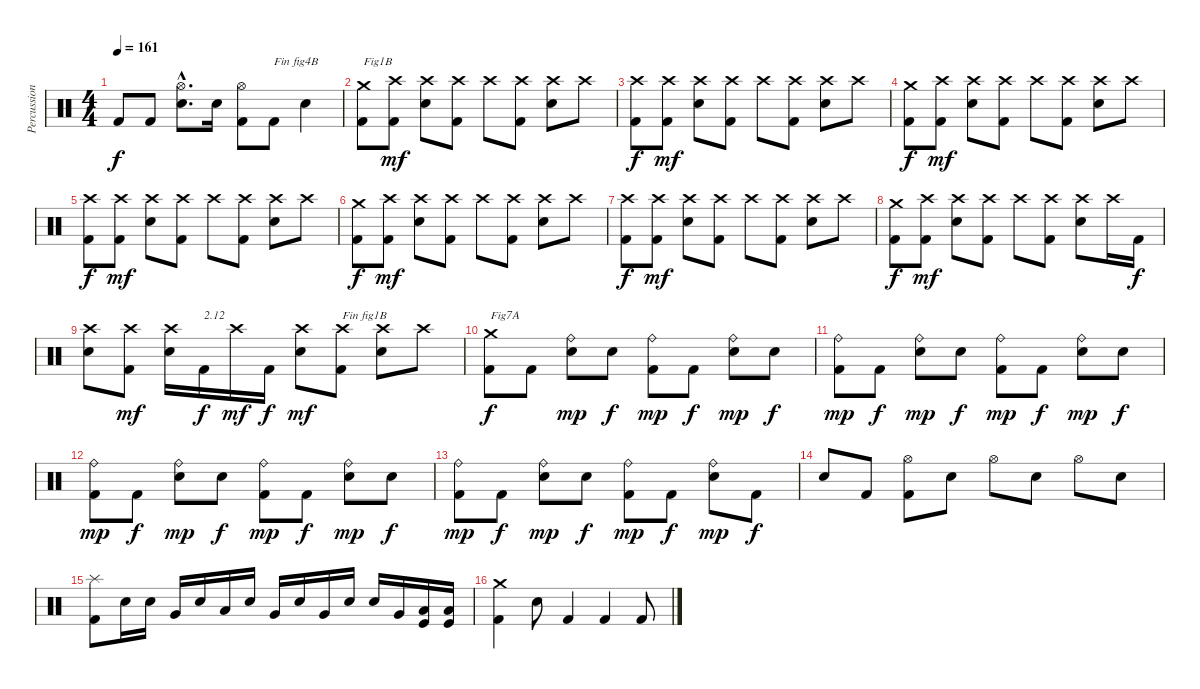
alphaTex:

\track ("Percussions" "Percussion") {instrument percussion}
\staff {score}
\articulation defaults
\ts (4 4)
\tempo 161
\clef neutral
\ks c "Kick (hit) 2".8{dy f} "Kick (hit) 2".8
("Electric Snare (hit)"{hac} "Hi-Hat (open)"{hac}).8{d} "Electric Snare (hit)".16 ("Kick (hit) 2" "Hi-Hat (open)").8 "Kick (hit) 2".8{txt "Fin fig4B"} "Electric Snare (hit)".4 |
("Kick (hit) 2" "Crash medium (hit)").8{txt "Fig1B"} ("Kick (hit) 2" "Crash high (hit)").8{dy mf} ("Electric Snare (hit)" "Crash high (hit)").8 ("Kick (hit) 2" "Crash high (hit)").8 "Crash high (hit)".8 ("Kick (hit) 2" "Crash high (hit)").8 ("Electric Snare (hit)" "Crash high (hit)").8 "Crash high (hit)".8 |
("Kick (hit) 2" "Crash high (hit)").8{dy f} ("Kick (hit) 2" "Crash high (hit)").8{dy mf} ("Electric Snare (hit)" "Crash high (hit)").8 ("Kick (hit) 2" "Crash high (hit)").8 "Crash high (hit)".8 ("Kick (hit) 2" "Crash high (hit)").8 ("Electric Snare (hit)" "Crash high (hit)").8 "Crash high (hit)".8 |
("Kick (hit) 2" "Crash medium (hit)").8{dy f} ("Kick (hit) 2" "Crash high (hit)").8{dy mf} ("Electric Snare (hit)" "Crash high (hit)").8 ("Kick (hit) 2" "Crash high (hit)").8 "Crash high (hit)".8 ("Kick (hit) 2" "Crash high (hit)").8 ("Electric Snare (hit)" "Crash high (hit)").8 "Crash high (hit)".8 |
("Kick (hit) 2" "Crash high (hit)").8{dy f} ("Kick (hit) 2" "Crash high (hit)").8{dy mf} ("Electric Snare (hit)" "Crash high (hit)").8 ("Kick (hit) 2" "Crash high (hit)").8 "Crash high (hit)".8 ("Kick (hit) 2" "Crash high (hit)").8 ("Electric Snare (hit)" "Crash high (hit)").8 "Crash high (hit)".8 |
("Kick (hit) 2" "Crash medium (hit)").8{dy f} ("Kick (hit) 2" "Crash high (hit)").8{dy mf} ("Electric Snare (hit)" "Crash high (hit)").8 ("Kick (hit) 2" "Crash high (hit)").8 "Crash high (hit)".8 ("Kick (hit) 2" "Crash high (hit)").8 ("Electric Snare (hit)" "Crash high (hit)").8 "Crash high (hit)".8 |
("Kick (hit) 2" "Crash high (hit)").8{dy f} ("Kick (hit) 2" "Crash high (hit)").8{dy mf} ("Electric Snare (hit)" "Crash high (hit)").8 ("Kick (hit) 2" "Crash high (hit)").8 "Crash high (hit)".8 ("Kick (hit) 2" "Crash high (hit)").8 ("Electric Snare (hit)" "Crash high (hit)").8 "Crash high (hit)".8 |
("Kick (hit) 2" "Crash medium (hit)").8{dy f} ("Kick (hit) 2" "Crash high (hit)").8{dy mf} ("Electric Snare (hit)" "Crash high (hit)").8 ("Kick (hit) 2" "Crash high (hit)").8 "Crash high (hit)".8 ("Kick (hit) 2" "Crash high (hit)").8 ("Electric Snare (hit)" "Crash high (hit)").8 "Crash high (hit)".16 "Kick (hit) 2".16{dy f} |
("Electric Snare (hit)" "Crash high (hit)").8 ("Kick (hit) 2" "Crash high (hit)").8{dy mf} ("Electric Snare (hit)" "Crash high (hit)").16 "Kick (hit) 2".16{txt "2.12" dy f} "Crash high (hit)".16{dy mf} "Kick (hit) 2".16{dy f} ("Electric Snare (hit)" "Crash high (hit)").8{dy mf} ("Kick (hit) 2" "Crash high (hit)").8{txt "Fin fig1B"} ("Electric Snare (hit)" "Crash high (hit)").8 "Crash high (hit)".8 |
("Kick (hit) 2" "Crash medium (hit)").8{txt "Fig7A" dy f} "Kick (hit) 2".8 ("Electric Snare (hit)" "Ride (bell)").8{dy mp} "Electric Snare (hit)".8{dy f} ("Kick (hit) 2" "Ride (bell)").8{dy mp} "Kick (hit) 2".8{dy f} ("Electric Snare (hit)" "Ride (bell)").8{dy mp} "Electric Snare (hit)".8{dy f} |
("Kick (hit) 2" "Ride (bell)").8{dy mp} "Kick (hit) 2".8{dy f} ("Electric Snare (hit)" "Ride (bell)").8{dy mp} "Electric Snare (hit)".8{dy f} ("Kick (hit) 2" "Ride (bell)").8{dy mp} "Kick (hit) 2".8{dy f} ("Electric Snare (hit)" "Ride (bell)").8{dy mp} "Electric Snare (hit)".8{dy f} |
("Kick (hit) 2" "Ride (bell)").8{dy mp} "Kick (hit) 2".8{dy f} ("Electric Snare (hit)" "Ride (bell)").8{dy mp} "Electric Snare (hit)".8{dy f} ("Kick (hit) 2" "Ride (bell)").8{dy mp} "Kick (hit) 2".8{dy f} ("Electric Snare (hit)" "Ride (bell)").8{dy mp} "Electric Snare (hit)".8{dy f} |
("Kick (hit) 2" "Ride (bell)").8{dy mp} "Kick (hit) 2".8{dy f} ("Electric Snare (hit)" "Ride (bell)").8{dy mp} "Electric Snare (hit)".8{dy f} ("Kick (hit) 2" "Ride (bell)").8{dy mp} "Kick (hit) 2".8{dy f} ("Electric Snare (hit)" "Ride (bell)").8{dy mp} "Kick (hit) 2".8{dy f} |
"Electric Snare (hit)".8 "Kick (hit) 2".8 ("Kick (hit) 2" "Hi-Hat (open)").8 "Electric Snare (hit)".8 "Hi-Hat (open)".8 "Electric Snare (hit)".8 "Hi-Hat (open)".8 "Electric Snare (hit)".8 |
("Kick (hit) 2" "Splash (hit)").8 "Electric Snare (hit)".16 "Electric Snare (hit)".16 "Very Low Tom (hit)".16 "Electric Snare (hit)".16 "Low Floor Tom (hit)".16 "Electric Snare (hit)".16 "Very Low Tom (hit)".16 "Electric Snare (hit)".16 "Very Low Tom (hit)".16 "Electric Snare (hit)".16 "Electric Snare (hit)".16 "Very Low Tom (hit)".16 ("Low Floor Tom (hit)" "Kick (hit)").16 ("Low Floor Tom (hit)" "Kick (hit)").16 |
("Kick (hit) 2" "Crash medium (hit)").4 "Electric Snare (hit)".8 "Kick (hit) 2".4 "Kick (hit) 2".4 "Kick (hit) 2".8
